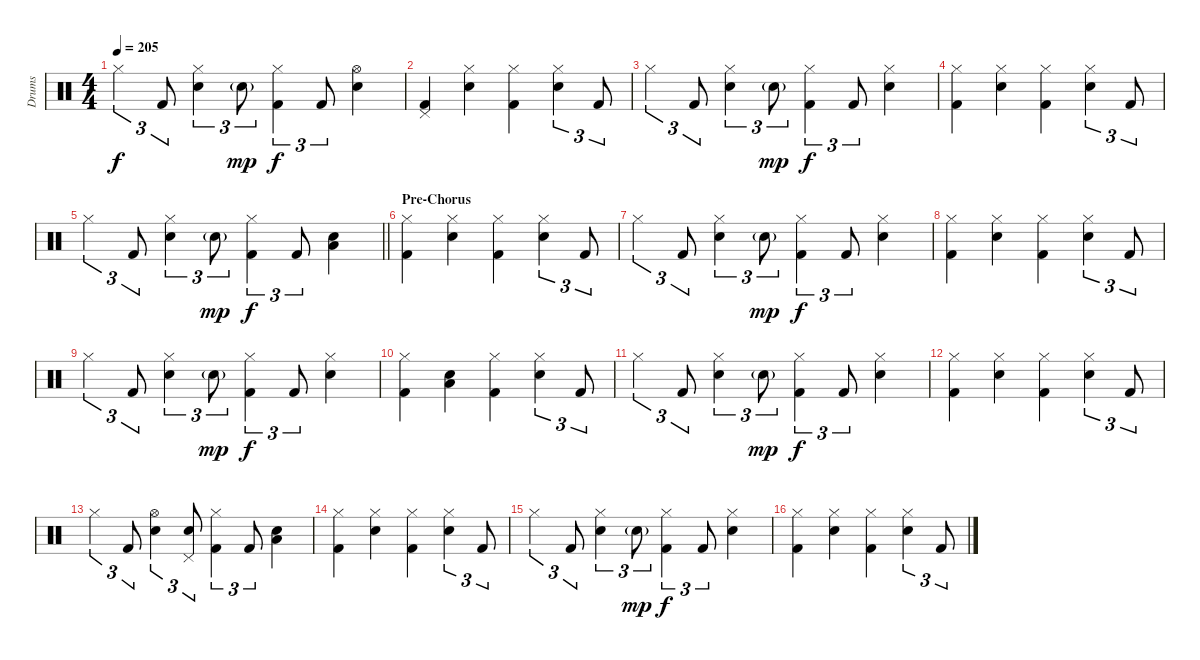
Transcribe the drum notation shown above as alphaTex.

\track ("Drums" "Drums") {instrument percussion}
\staff {score}
\articulation defaults
\ts (4 4)
\tempo 205
\clef neutral
\ks c "Hi-Hat (closed)".4{tu (3 2) dy f} "Kick (hit) 2".8{tu (3 2)}
("Hi-Hat (closed)" "Electric Snare (hit)").4{tu (3 2)} "Electric Snare (hit)"{g}.8{tu (3 2) dy mp} ("Hi-Hat (closed)" "Kick (hit) 2").4{tu (3 2) dy f} "Kick (hit) 2".8{tu (3 2)} ("Hi-Hat (open)" "Electric Snare (hit)").4 |
("Pedal Hi-Hat (hit)" "Kick (hit) 2").4 ("Hi-Hat (closed)" "Electric Snare (hit)").4 ("Hi-Hat (closed)" "Kick (hit) 2").4 ("Hi-Hat (closed)" "Electric Snare (hit)").4{tu (3 2)} "Kick (hit) 2".8{tu (3 2)} |
"Hi-Hat (closed)".4{tu (3 2)} "Kick (hit) 2".8{tu (3 2)} ("Hi-Hat (closed)" "Electric Snare (hit)").4{tu (3 2)} "Electric Snare (hit)"{g}.8{tu (3 2) dy mp} ("Hi-Hat (closed)" "Kick (hit) 2").4{tu (3 2) dy f} "Kick (hit) 2".8{tu (3 2)} ("Hi-Hat (closed)" "Electric Snare (hit)").4 |
("Hi-Hat (closed)" "Kick (hit) 2").4 ("Hi-Hat (closed)" "Electric Snare (hit)").4 ("Hi-Hat (closed)" "Kick (hit) 2").4 ("Hi-Hat (closed)" "Electric Snare (hit)").4{tu (3 2)} "Kick (hit) 2".8{tu (3 2)} |
\barLineRight lightlight "Hi-Hat (closed)".4{tu (3 2)} "Kick (hit) 2".8{tu (3 2)}
("Hi-Hat (closed)" "Electric Snare (hit)").4{tu (3 2)} "Electric Snare (hit)"{g}.8{tu (3 2) dy mp} ("Hi-Hat (closed)" "Kick (hit) 2").4{tu (3 2) dy f} "Kick (hit) 2".8{tu (3 2)} ("Low Floor Tom (hit)" "Electric Snare (hit)").4 |
\section ("" "Pre-Chorus")
("Hi-Hat (closed)" "Kick (hit) 2").4 ("Hi-Hat (closed)" "Electric Snare (hit)").4 ("Hi-Hat (closed)" "Kick (hit) 2").4 ("Hi-Hat (closed)" "Electric Snare (hit)").4{tu (3 2)} "Kick (hit) 2".8{tu (3 2)} |
"Hi-Hat (closed)".4{tu (3 2)} "Kick (hit) 2".8{tu (3 2)} ("Hi-Hat (closed)" "Electric Snare (hit)").4{tu (3 2)} "Electric Snare (hit)"{g}.8{tu (3 2) dy mp} ("Hi-Hat (closed)" "Kick (hit) 2").4{tu (3 2) dy f} "Kick (hit) 2".8{tu (3 2)} ("Hi-Hat (closed)" "Electric Snare (hit)").4 |
("Hi-Hat (closed)" "Kick (hit) 2").4 ("Hi-Hat (closed)" "Electric Snare (hit)").4 ("Hi-Hat (closed)" "Kick (hit) 2").4 ("Hi-Hat (closed)" "Electric Snare (hit)").4{tu (3 2)} "Kick (hit) 2".8{tu (3 2)} |
"Hi-Hat (closed)".4{tu (3 2)} "Kick (hit) 2".8{tu (3 2)} ("Hi-Hat (closed)" "Electric Snare (hit)").4{tu (3 2)} "Electric Snare (hit)"{g}.8{tu (3 2) dy mp} ("Hi-Hat (closed)" "Kick (hit) 2").4{tu (3 2) dy f} "Kick (hit) 2".8{tu (3 2)} ("Hi-Hat (closed)" "Electric Snare (hit)").4 |
("Hi-Hat (closed)" "Kick (hit) 2").4 ("Low Floor Tom (hit)" "Electric Snare (hit)").4 ("Hi-Hat (closed)" "Kick (hit) 2").4 ("Hi-Hat (closed)" "Electric Snare (hit)").4{tu (3 2)} "Kick (hit) 2".8{tu (3 2)} |
"Hi-Hat (closed)".4{tu (3 2)} "Kick (hit) 2".8{tu (3 2)} ("Hi-Hat (closed)" "Electric Snare (hit)").4{tu (3 2)} "Electric Snare (hit)"{g}.8{tu (3 2) dy mp} ("Hi-Hat (closed)" "Kick (hit) 2").4{tu (3 2) dy f} "Kick (hit) 2".8{tu (3 2)} ("Hi-Hat (closed)" "Electric Snare (hit)").4 |
("Hi-Hat (closed)" "Kick (hit) 2").4 ("Hi-Hat (closed)" "Electric Snare (hit)").4 ("Hi-Hat (closed)" "Kick (hit) 2").4 ("Hi-Hat (closed)" "Electric Snare (hit)").4{tu (3 2)} "Kick (hit) 2".8{tu (3 2)} |
"Hi-Hat (closed)".4{tu (3 2)} "Kick (hit) 2".8{tu (3 2)} ("Hi-Hat (open)" "Electric Snare (hit)").4{tu (3 2)} ("Pedal Hi-Hat (hit)" "Electric Snare (hit)").8{tu (3 2)} ("Hi-Hat (closed)" "Kick (hit) 2").4{tu (3 2)} "Kick (hit) 2".8{tu (3 2)} ("Low Floor Tom (hit)" "Electric Snare (hit)").4 |
("Hi-Hat (closed)" "Kick (hit) 2").4 ("Hi-Hat (closed)" "Electric Snare (hit)").4 ("Hi-Hat (closed)" "Kick (hit) 2").4 ("Hi-Hat (closed)" "Electric Snare (hit)").4{tu (3 2)} "Kick (hit) 2".8{tu (3 2)} |
"Hi-Hat (closed)".4{tu (3 2)} "Kick (hit) 2".8{tu (3 2)} ("Hi-Hat (closed)" "Electric Snare (hit)").4{tu (3 2)} "Electric Snare (hit)"{g}.8{tu (3 2) dy mp} ("Hi-Hat (closed)" "Kick (hit) 2").4{tu (3 2) dy f} "Kick (hit) 2".8{tu (3 2)} ("Hi-Hat (closed)" "Electric Snare (hit)").4 |
("Hi-Hat (closed)" "Kick (hit) 2").4 ("Hi-Hat (closed)" "Electric Snare (hit)").4 ("Hi-Hat (closed)" "Kick (hit) 2").4 ("Hi-Hat (closed)" "Electric Snare (hit)").4{tu (3 2)} "Kick (hit) 2".8{tu (3 2)}
